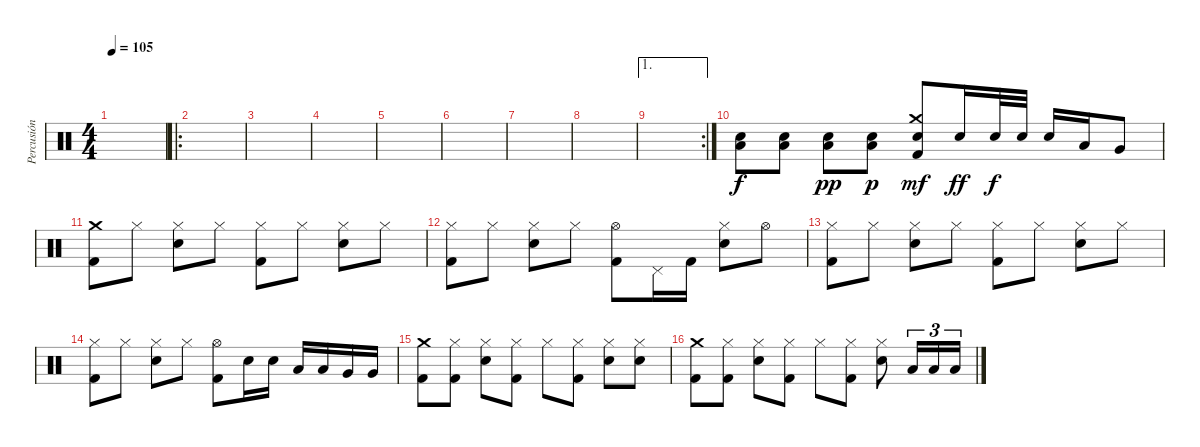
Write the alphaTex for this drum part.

\track ("Percusión" "Percusión") {instrument percussion}
\staff {score}
\articulation defaults
\ts (4 4)
\tempo 105
\clef neutral
\ks c
|
\ro
|
|
|
|
|
|
|
\ae 1
\rc 2
|
("Low Floor Tom (hit)" "Snare (hit) 2").8 ("Low Floor Tom (hit)" "Snare (hit) 2").8 ("Low Floor Tom (hit)" "Snare (hit) 2").8{dy pp} ("Low Floor Tom (hit)" "Snare (hit) 2").8{dy p} ("Crash medium (hit)" "Snare (hit) 2" "Kick (hit) 2").8{dy mf} "Snare (hit) 2".16{dy ff} "Snare (hit) 2".32{dy f} "Snare (hit) 2".32 "Snare (hit) 2".16 "Low Tom (hit)".16 "Very Low Tom (hit)".8 |
("Crash medium (hit)" "Kick (hit) 2").8 "Hi-Hat (closed)".8 ("Hi-Hat (closed)" "Snare (hit) 2").8 "Hi-Hat (closed)".8 ("Hi-Hat (closed)" "Kick (hit) 2").8 "Hi-Hat (closed)".8 ("Hi-Hat (closed)" "Snare (hit) 2").8 "Hi-Hat (closed)".8 |
("Hi-Hat (closed)" "Kick (hit) 2").8 "Hi-Hat (closed)".8 ("Hi-Hat (closed)" "Snare (hit) 2").8 "Hi-Hat (closed)".8 ("Hi-Hat (open)" "Kick (hit) 2").8 "Pedal Hi-Hat (hit)".16 "Kick (hit) 2".16 ("Hi-Hat (closed)" "Snare (hit) 2").8 "Hi-Hat (open)".8 |
("Hi-Hat (closed)" "Kick (hit) 2").8 "Hi-Hat (closed)".8 ("Hi-Hat (closed)" "Snare (hit) 2").8 "Hi-Hat (closed)".8 ("Hi-Hat (closed)" "Kick (hit) 2").8 "Hi-Hat (closed)".8 ("Hi-Hat (closed)" "Snare (hit) 2").8 "Hi-Hat (closed)".8 |
("Hi-Hat (closed)" "Kick (hit) 2").8 "Hi-Hat (closed)".8 ("Hi-Hat (closed)" "Snare (hit) 2").8 "Hi-Hat (closed)".8 ("Hi-Hat (open)" "Kick (hit) 2").8 "Snare (hit) 2".16 "Snare (hit) 2".16 "Low Tom (hit)".16 "Low Tom (hit)".16 "Very Low Tom (hit)".16 "Very Low Tom (hit)".16 |
("Crash medium (hit)" "Kick (hit) 2").8 ("Hi-Hat (closed)" "Kick (hit) 2").8 ("Hi-Hat (closed)" "Snare (hit) 2").8 ("Hi-Hat (closed)" "Kick (hit) 2").8 "Hi-Hat (closed)".8 ("Hi-Hat (closed)" "Kick (hit) 2").8 ("Hi-Hat (closed)" "Snare (hit) 2").8 ("Hi-Hat (closed)" "Snare (hit) 2").8 |
("Crash medium (hit)" "Kick (hit) 2").8 ("Hi-Hat (closed)" "Kick (hit) 2").8 ("Hi-Hat (closed)" "Snare (hit) 2").8 ("Hi-Hat (closed)" "Kick (hit) 2").8 "Hi-Hat (closed)".8 ("Hi-Hat (closed)" "Kick (hit) 2").8 ("Hi-Hat (closed)" "Snare (hit) 2").8 "Low Tom (hit)".16{tu (3 2)} "Low Tom (hit)".16{tu (3 2)} "Low Tom (hit)".16{tu (3 2)}
